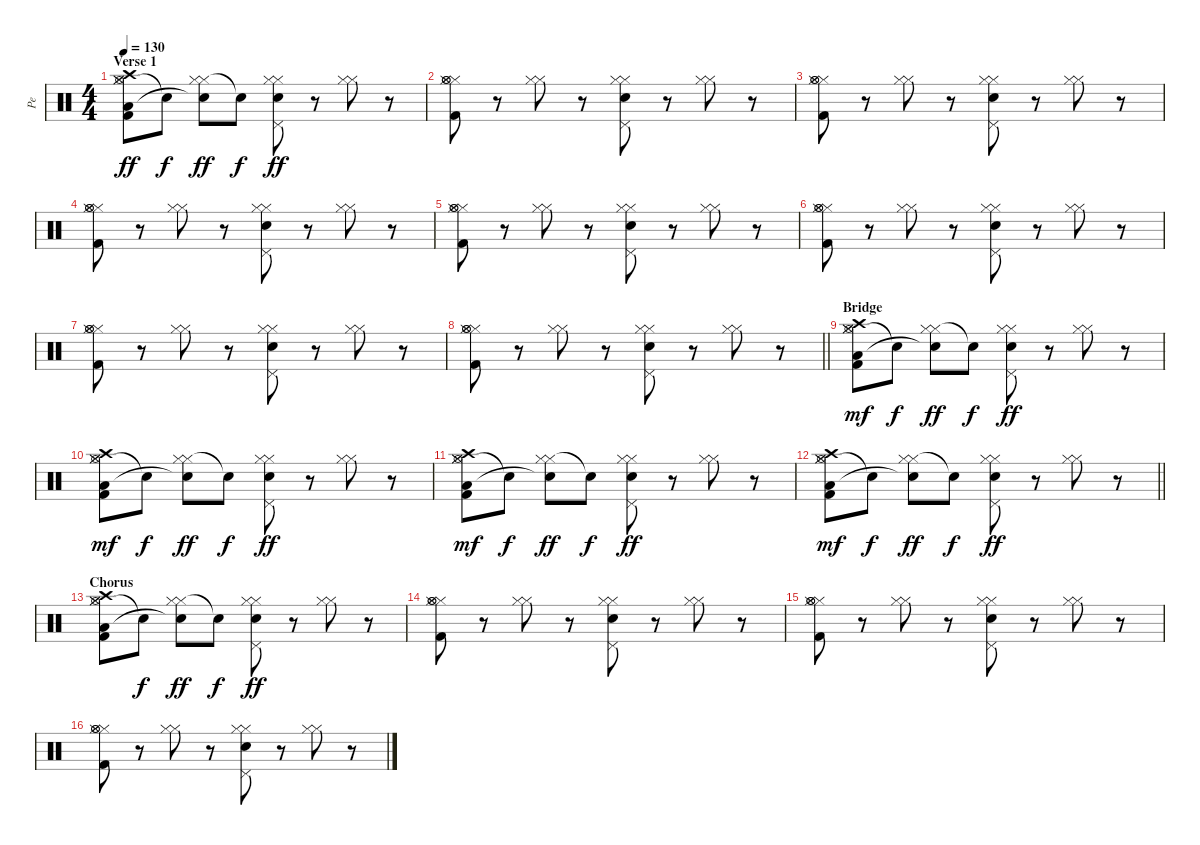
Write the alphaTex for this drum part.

\track ("Pe" "Pe") {instrument percussion}
\staff {score}
\articulation defaults
\ts (4 4)
\section ("" "Verse 1")
\tempo 130
\clef neutral
\ks c
("Hi-Hat (closed)" "Hi-Hat (closed)" "Low Floor Tom (hit)" "Hi-Hat (open)" "Crash high (hit)" "Kick (hit) 2").8{dy ff} "Snare (hit)"{t}.8{dy f} ("Hi-Hat (closed)" "Hi-Hat (closed)" "Snare (hit)"{t}).8{dy ff} "Snare (hit)"{t}.8{dy f} ("Hi-Hat (closed)" "Hi-Hat (closed)" "Pedal Hi-Hat (hit)" "Electric Snare (hit)").8{dy ff} r.8 ("Hi-Hat (closed)" "Hi-Hat (closed)").8 r.8 |
("Hi-Hat (closed)" "Hi-Hat (closed)" "Hi-Hat (open)" "Hi-Hat (open)" "Kick (hit) 2").8 r.8 ("Hi-Hat (closed)" "Hi-Hat (closed)").8 r.8 ("Hi-Hat (closed)" "Hi-Hat (closed)" "Pedal Hi-Hat (hit)" "Electric Snare (hit)").8 r.8 ("Hi-Hat (closed)" "Hi-Hat (closed)").8 r.8 |
("Hi-Hat (closed)" "Hi-Hat (closed)" "Hi-Hat (open)" "Hi-Hat (open)" "Kick (hit) 2").8 r.8 ("Hi-Hat (closed)" "Hi-Hat (closed)").8 r.8 ("Hi-Hat (closed)" "Hi-Hat (closed)" "Pedal Hi-Hat (hit)" "Electric Snare (hit)").8 r.8 ("Hi-Hat (closed)" "Hi-Hat (closed)").8 r.8 |
("Hi-Hat (closed)" "Hi-Hat (closed)" "Hi-Hat (open)" "Hi-Hat (open)" "Kick (hit) 2").8 r.8 ("Hi-Hat (closed)" "Hi-Hat (closed)").8 r.8 ("Hi-Hat (closed)" "Hi-Hat (closed)" "Pedal Hi-Hat (hit)" "Electric Snare (hit)").8 r.8 ("Hi-Hat (closed)" "Hi-Hat (closed)").8 r.8 |
("Hi-Hat (closed)" "Hi-Hat (closed)" "Hi-Hat (open)" "Hi-Hat (open)" "Kick (hit) 2").8 r.8 ("Hi-Hat (closed)" "Hi-Hat (closed)").8 r.8 ("Hi-Hat (closed)" "Hi-Hat (closed)" "Pedal Hi-Hat (hit)" "Electric Snare (hit)").8 r.8 ("Hi-Hat (closed)" "Hi-Hat (closed)").8 r.8 |
("Hi-Hat (closed)" "Hi-Hat (closed)" "Hi-Hat (open)" "Hi-Hat (open)" "Kick (hit) 2").8 r.8 ("Hi-Hat (closed)" "Hi-Hat (closed)").8 r.8 ("Hi-Hat (closed)" "Hi-Hat (closed)" "Pedal Hi-Hat (hit)" "Electric Snare (hit)").8 r.8 ("Hi-Hat (closed)" "Hi-Hat (closed)").8 r.8 |
("Hi-Hat (closed)" "Hi-Hat (closed)" "Hi-Hat (open)" "Hi-Hat (open)" "Kick (hit) 2").8 r.8 ("Hi-Hat (closed)" "Hi-Hat (closed)").8 r.8 ("Hi-Hat (closed)" "Hi-Hat (closed)" "Pedal Hi-Hat (hit)" "Electric Snare (hit)").8 r.8 ("Hi-Hat (closed)" "Hi-Hat (closed)").8 r.8 |
\barLineRight lightlight
("Hi-Hat (closed)" "Hi-Hat (closed)" "Hi-Hat (open)" "Hi-Hat (open)" "Kick (hit) 2").8 r.8 ("Hi-Hat (closed)" "Hi-Hat (closed)").8 r.8 ("Hi-Hat (closed)" "Hi-Hat (closed)" "Pedal Hi-Hat (hit)" "Electric Snare (hit)").8 r.8 ("Hi-Hat (closed)" "Hi-Hat (closed)").8 r.8 |
\section ("" "Bridge")
("Hi-Hat (closed)" "Hi-Hat (closed)" "Low Floor Tom (hit)" "Hi-Hat (open)" "Crash high (hit)" "Kick (hit) 2").8{dy mf} "Snare (hit)"{t}.8{dy f} ("Hi-Hat (closed)" "Hi-Hat (closed)" "Snare (hit)"{t}).8{dy ff} "Snare (hit)"{t}.8{dy f} ("Hi-Hat (closed)" "Hi-Hat (closed)" "Pedal Hi-Hat (hit)" "Electric Snare (hit)").8{dy ff} r.8 ("Hi-Hat (closed)" "Hi-Hat (closed)").8 r.8 |
("Hi-Hat (closed)" "Hi-Hat (closed)" "Low Floor Tom (hit)" "Hi-Hat (open)" "Crash high (hit)" "Kick (hit) 2").8{dy mf} "Snare (hit)"{t}.8{dy f} ("Hi-Hat (closed)" "Hi-Hat (closed)" "Snare (hit)"{t}).8{dy ff} "Snare (hit)"{t}.8{dy f} ("Hi-Hat (closed)" "Hi-Hat (closed)" "Pedal Hi-Hat (hit)" "Electric Snare (hit)").8{dy ff} r.8 ("Hi-Hat (closed)" "Hi-Hat (closed)").8 r.8 |
("Hi-Hat (closed)" "Hi-Hat (closed)" "Low Floor Tom (hit)" "Hi-Hat (open)" "Crash high (hit)" "Kick (hit) 2").8{dy mf} "Snare (hit)"{t}.8{dy f} ("Hi-Hat (closed)" "Hi-Hat (closed)" "Snare (hit)"{t}).8{dy ff} "Snare (hit)"{t}.8{dy f} ("Hi-Hat (closed)" "Hi-Hat (closed)" "Pedal Hi-Hat (hit)" "Electric Snare (hit)").8{dy ff} r.8 ("Hi-Hat (closed)" "Hi-Hat (closed)").8 r.8 |
\barLineRight lightlight
("Hi-Hat (closed)" "Hi-Hat (closed)" "Low Floor Tom (hit)" "Hi-Hat (open)" "Crash high (hit)" "Kick (hit) 2").8{dy mf} "Snare (hit)"{t}.8{dy f} ("Hi-Hat (closed)" "Hi-Hat (closed)" "Snare (hit)"{t}).8{dy ff} "Snare (hit)"{t}.8{dy f} ("Hi-Hat (closed)" "Hi-Hat (closed)" "Pedal Hi-Hat (hit)" "Electric Snare (hit)").8{dy ff} r.8 ("Hi-Hat (closed)" "Hi-Hat (closed)").8 r.8 |
\section ("" "Chorus")
("Hi-Hat (closed)" "Hi-Hat (closed)" "Low Floor Tom (hit)" "Hi-Hat (open)" "Crash high (hit)" "Kick (hit) 2").8 "Snare (hit)"{t}.8{dy f} ("Hi-Hat (closed)" "Hi-Hat (closed)" "Snare (hit)"{t}).8{dy ff} "Snare (hit)"{t}.8{dy f} ("Hi-Hat (closed)" "Hi-Hat (closed)" "Pedal Hi-Hat (hit)" "Electric Snare (hit)").8{dy ff} r.8 ("Hi-Hat (closed)" "Hi-Hat (closed)").8 r.8 |
("Hi-Hat (closed)" "Hi-Hat (closed)" "Hi-Hat (open)" "Hi-Hat (open)" "Kick (hit) 2").8 r.8 ("Hi-Hat (closed)" "Hi-Hat (closed)").8 r.8 ("Hi-Hat (closed)" "Hi-Hat (closed)" "Pedal Hi-Hat (hit)" "Electric Snare (hit)").8 r.8 ("Hi-Hat (closed)" "Hi-Hat (closed)").8 r.8 |
("Hi-Hat (closed)" "Hi-Hat (closed)" "Hi-Hat (open)" "Hi-Hat (open)" "Kick (hit) 2").8 r.8 ("Hi-Hat (closed)" "Hi-Hat (closed)").8 r.8 ("Hi-Hat (closed)" "Hi-Hat (closed)" "Pedal Hi-Hat (hit)" "Electric Snare (hit)").8 r.8 ("Hi-Hat (closed)" "Hi-Hat (closed)").8 r.8 |
("Hi-Hat (closed)" "Hi-Hat (closed)" "Hi-Hat (open)" "Hi-Hat (open)" "Kick (hit) 2").8 r.8 ("Hi-Hat (closed)" "Hi-Hat (closed)").8 r.8 ("Hi-Hat (closed)" "Hi-Hat (closed)" "Pedal Hi-Hat (hit)" "Electric Snare (hit)").8 r.8 ("Hi-Hat (closed)" "Hi-Hat (closed)").8 r.8
